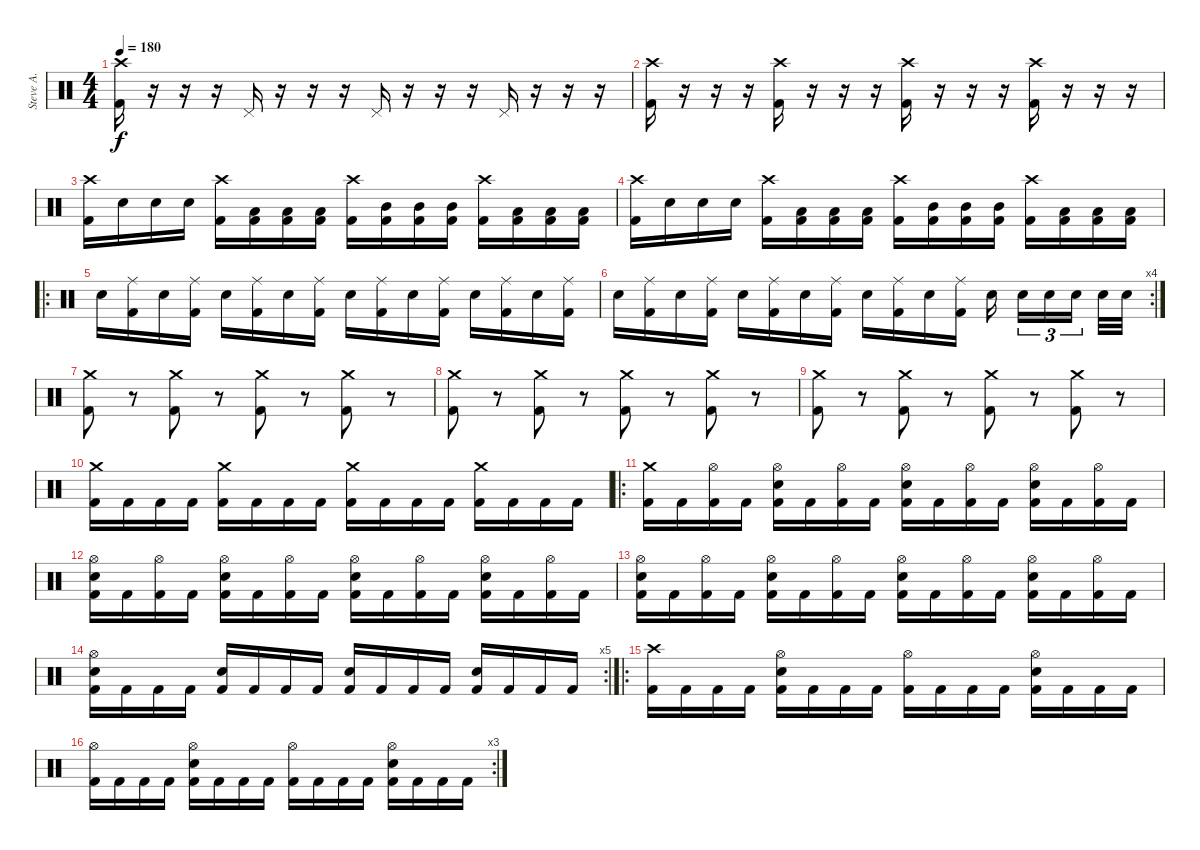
\track ("Steve A." "Steve A.") {instrument percussion}
\staff {score}
\articulation defaults
\ts (4 4)
\tempo 180
\clef neutral
\ks c
("Kick (hit) 2" "Crash high (hit)").16{dy f} r.16 r.16 r.16 "Pedal Hi-Hat (hit)".16 r.16 r.16 r.16 "Pedal Hi-Hat (hit)".16 r.16 r.16 r.16 "Pedal Hi-Hat (hit)".16 r.16 r.16 r.16 |
("Kick (hit) 2" "Crash high (hit)").16 r.16 r.16 r.16 ("Kick (hit) 2" "Crash high (hit)").16 r.16 r.16 r.16 ("Kick (hit) 2" "Crash high (hit)").16 r.16 r.16 r.16 ("Kick (hit) 2" "Crash high (hit)").16 r.16 r.16 r.16 |
("Kick (hit) 2" "Crash high (hit)").16 "Electric Snare (hit)".16 "Electric Snare (hit)".16 "Electric Snare (hit)".16 ("Kick (hit) 2" "Crash high (hit)").16 ("Kick (hit) 2" "Low Tom (hit)").16 ("Kick (hit) 2" "Low Tom (hit)").16 ("Kick (hit) 2" "Low Tom (hit)").16 ("Kick (hit) 2" "Crash high (hit)").16 ("Kick (hit) 2" "Mid Tom (hit)").16 ("Kick (hit) 2" "Mid Tom (hit)").16 ("Kick (hit) 2" "Mid Tom (hit)").16 ("Kick (hit) 2" "Crash high (hit)").16 ("Kick (hit) 2" "Low Tom (hit)").16 ("Kick (hit) 2" "Low Tom (hit)").16 ("Kick (hit) 2" "Low Tom (hit)").16 |
("Kick (hit) 2" "Crash high (hit)").16 "Electric Snare (hit)".16 "Electric Snare (hit)".16 "Electric Snare (hit)".16 ("Kick (hit) 2" "Crash high (hit)").16 ("Kick (hit) 2" "Low Tom (hit)").16 ("Kick (hit) 2" "Low Tom (hit)").16 ("Kick (hit) 2" "Low Tom (hit)").16 ("Kick (hit) 2" "Crash high (hit)").16 ("Kick (hit) 2" "Mid Tom (hit)").16 ("Kick (hit) 2" "Mid Tom (hit)").16 ("Kick (hit) 2" "Mid Tom (hit)").16 ("Kick (hit) 2" "Crash high (hit)").16 ("Kick (hit) 2" "Low Tom (hit)").16 ("Kick (hit) 2" "Low Tom (hit)").16 ("Kick (hit) 2" "Low Tom (hit)").16 |
\ro "Electric Snare (hit)".16
("Kick (hit) 2" "Ride (middle)").16 "Electric Snare (hit)".16 ("Kick (hit) 2" "Ride (middle)").16 "Electric Snare (hit)".16 ("Kick (hit) 2" "Ride (middle)").16 "Electric Snare (hit)".16 ("Kick (hit) 2" "Ride (middle)").16 "Electric Snare (hit)".16 ("Kick (hit) 2" "Ride (middle)").16 "Electric Snare (hit)".16 ("Kick (hit) 2" "Ride (middle)").16 "Electric Snare (hit)".16 ("Kick (hit) 2" "Ride (middle)").16 "Electric Snare (hit)".16 ("Kick (hit) 2" "Ride (middle)").16 |
\rc 4 "Electric Snare (hit)".16
("Kick (hit) 2" "Ride (middle)").16 "Electric Snare (hit)".16 ("Kick (hit) 2" "Ride (middle)").16 "Electric Snare (hit)".16 ("Kick (hit) 2" "Ride (middle)").16 "Electric Snare (hit)".16 ("Kick (hit) 2" "Ride (middle)").16 "Electric Snare (hit)".16 ("Kick (hit) 2" "Ride (middle)").16 "Electric Snare (hit)".16 ("Kick (hit) 2" "Ride (middle)").16 "Electric Snare (hit)".16 "Electric Snare (hit)".16{tu (3 2)} "Electric Snare (hit)".16{tu (3 2)} "Electric Snare (hit)".16{tu (3 2)} "Electric Snare (hit)".32 "Electric Snare (hit)".32 |
("Kick (hit) 2" "Crash medium (hit)").8 r.8 ("Kick (hit) 2" "Crash medium (hit)").8 r.8 ("Kick (hit) 2" "Crash medium (hit)").8 r.8 ("Kick (hit) 2" "Crash medium (hit)").8 r.8 |
("Kick (hit) 2" "Crash medium (hit)").8 r.8 ("Kick (hit) 2" "Crash medium (hit)").8 r.8 ("Kick (hit) 2" "Crash medium (hit)").8 r.8 ("Kick (hit) 2" "Crash medium (hit)").8 r.8 |
("Kick (hit) 2" "Crash medium (hit)").8 r.8 ("Kick (hit) 2" "Crash medium (hit)").8 r.8 ("Kick (hit) 2" "Crash medium (hit)").8 r.8 ("Kick (hit) 2" "Crash medium (hit)").8 r.8 |
("Kick (hit) 2" "Crash medium (hit)").16 "Kick (hit) 2".16 "Kick (hit) 2".16 "Kick (hit) 2".16 ("Kick (hit) 2" "Crash medium (hit)").16 "Kick (hit) 2".16 "Kick (hit) 2".16 "Kick (hit) 2".16 ("Kick (hit) 2" "Crash medium (hit)").16 "Kick (hit) 2".16 "Kick (hit) 2".16 "Kick (hit) 2".16 ("Kick (hit) 2" "Crash medium (hit)").16 "Kick (hit) 2".16 "Kick (hit) 2".16 "Kick (hit) 2".16 |
\ro
("Kick (hit) 2" "Crash medium (hit)").16 "Kick (hit) 2".16 ("Kick (hit) 2" "Hi-Hat (open)").16 "Kick (hit) 2".16 ("Kick (hit) 2" "Hi-Hat (open)" "Electric Snare (hit)").16 "Kick (hit) 2".16 ("Kick (hit) 2" "Hi-Hat (open)").16 "Kick (hit) 2".16 ("Kick (hit) 2" "Hi-Hat (open)" "Electric Snare (hit)").16 "Kick (hit) 2".16 ("Kick (hit) 2" "Hi-Hat (open)").16 "Kick (hit) 2".16 ("Kick (hit) 2" "Hi-Hat (open)" "Electric Snare (hit)").16 "Kick (hit) 2".16 ("Kick (hit) 2" "Hi-Hat (open)").16 "Kick (hit) 2".16 |
("Kick (hit) 2" "Hi-Hat (open)" "Electric Snare (hit)").16 "Kick (hit) 2".16 ("Kick (hit) 2" "Hi-Hat (open)").16 "Kick (hit) 2".16 ("Kick (hit) 2" "Hi-Hat (open)" "Electric Snare (hit)").16 "Kick (hit) 2".16 ("Kick (hit) 2" "Hi-Hat (open)").16 "Kick (hit) 2".16 ("Kick (hit) 2" "Hi-Hat (open)" "Electric Snare (hit)").16 "Kick (hit) 2".16 ("Kick (hit) 2" "Hi-Hat (open)").16 "Kick (hit) 2".16 ("Kick (hit) 2" "Hi-Hat (open)" "Electric Snare (hit)").16 "Kick (hit) 2".16 ("Kick (hit) 2" "Hi-Hat (open)").16 "Kick (hit) 2".16 |
("Kick (hit) 2" "Hi-Hat (open)" "Electric Snare (hit)").16 "Kick (hit) 2".16 ("Kick (hit) 2" "Hi-Hat (open)").16 "Kick (hit) 2".16 ("Kick (hit) 2" "Hi-Hat (open)" "Electric Snare (hit)").16 "Kick (hit) 2".16 ("Kick (hit) 2" "Hi-Hat (open)").16 "Kick (hit) 2".16 ("Kick (hit) 2" "Hi-Hat (open)" "Electric Snare (hit)").16 "Kick (hit) 2".16 ("Kick (hit) 2" "Hi-Hat (open)").16 "Kick (hit) 2".16 ("Kick (hit) 2" "Hi-Hat (open)" "Electric Snare (hit)").16 "Kick (hit) 2".16 ("Kick (hit) 2" "Hi-Hat (open)").16 "Kick (hit) 2".16 |
\rc 5
("Kick (hit) 2" "Hi-Hat (open)" "Electric Snare (hit)").16 "Kick (hit) 2".16 "Kick (hit) 2".16 "Kick (hit) 2".16 ("Kick (hit) 2" "Electric Snare (hit)").16 "Kick (hit) 2".16 "Kick (hit) 2".16 "Kick (hit) 2".16 ("Kick (hit) 2" "Electric Snare (hit)").16 "Kick (hit) 2".16 "Kick (hit) 2".16 "Kick (hit) 2".16 ("Kick (hit) 2" "Electric Snare (hit)").16 "Kick (hit) 2".16 "Kick (hit) 2".16 "Kick (hit) 2".16 |
\ro
("Kick (hit) 2" "Crash high (hit)").16 "Kick (hit) 2".16 "Kick (hit) 2".16 "Kick (hit) 2".16 ("Kick (hit) 2" "Hi-Hat (open)" "Electric Snare (hit)").16 "Kick (hit) 2".16 "Kick (hit) 2".16 "Kick (hit) 2".16 ("Kick (hit) 2" "Hi-Hat (open)").16 "Kick (hit) 2".16 "Kick (hit) 2".16 "Kick (hit) 2".16 ("Kick (hit) 2" "Hi-Hat (open)" "Electric Snare (hit)").16 "Kick (hit) 2".16 "Kick (hit) 2".16 "Kick (hit) 2".16 |
\rc 3
("Kick (hit) 2" "Hi-Hat (open)").16 "Kick (hit) 2".16 "Kick (hit) 2".16 "Kick (hit) 2".16 ("Kick (hit) 2" "Hi-Hat (open)" "Electric Snare (hit)").16 "Kick (hit) 2".16 "Kick (hit) 2".16 "Kick (hit) 2".16 ("Kick (hit) 2" "Hi-Hat (open)").16 "Kick (hit) 2".16 "Kick (hit) 2".16 "Kick (hit) 2".16 ("Kick (hit) 2" "Hi-Hat (open)" "Electric Snare (hit)").16 "Kick (hit) 2".16 "Kick (hit) 2".16 "Kick (hit) 2".16
